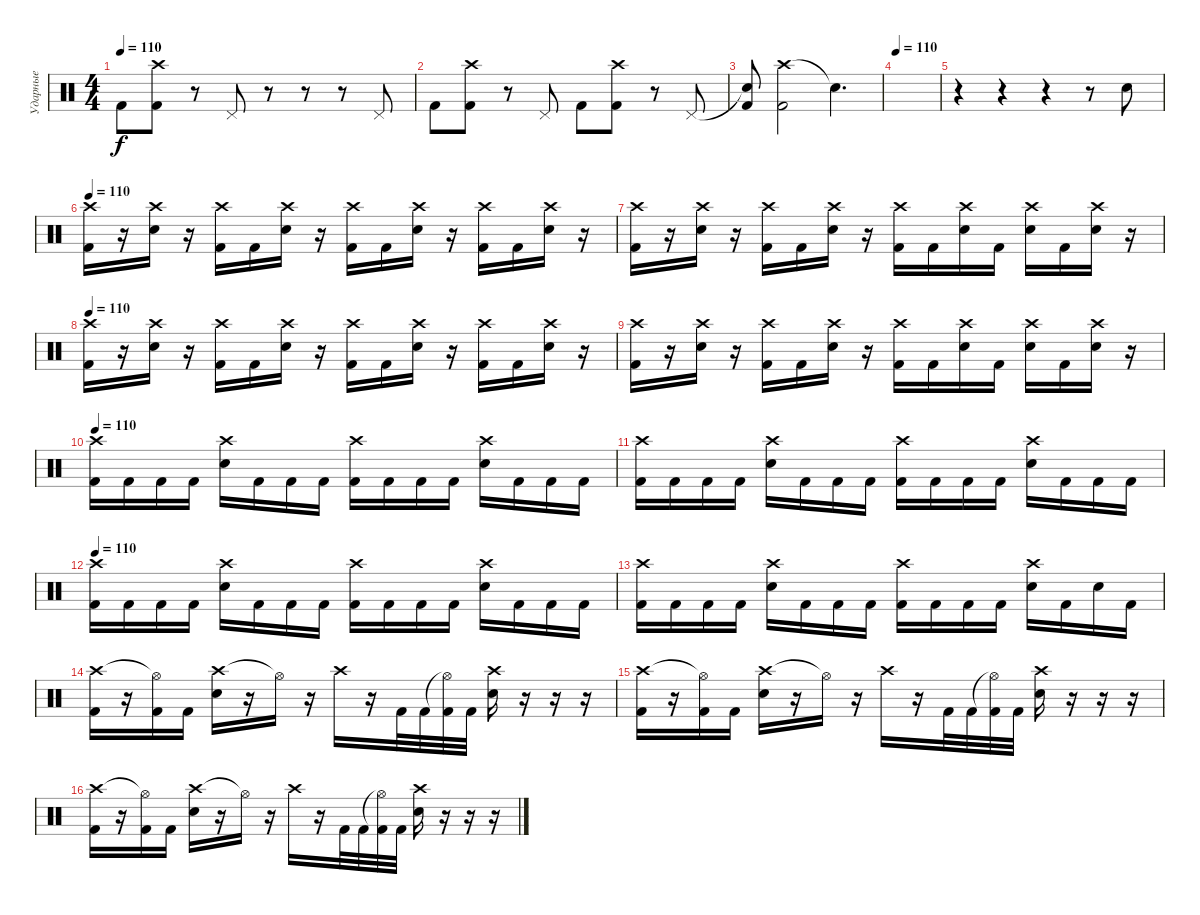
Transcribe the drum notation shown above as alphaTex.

\track ("Ударные" "Ударные") {instrument percussion}
\staff {score}
\articulation defaults
\ts (4 4)
\tempo 110
\clef neutral
\ks c "Kick (hit) 2".8{dy f}
("Crash high (hit)" "Kick (hit) 2").8 r.8 "Pedal Hi-Hat (hit)".8 r.8 r.8 r.8 "Pedal Hi-Hat (hit)".8 |
"Kick (hit) 2".8 ("Crash high (hit)" "Kick (hit) 2").8 r.8 "Pedal Hi-Hat (hit)".8 "Kick (hit) 2".8 ("Crash high (hit)" "Kick (hit) 2").8 r.8 "Pedal Hi-Hat (hit)".8 |
("Snare (hit)"{t} "Kick (hit) 2").8 ("Crash high (hit)" "Kick (hit) 2").2 "Snare (hit)"{t}.4{d} |
\tempo 110
|
r.4 r.4 r.4 r.8 "Snare (hit) 2".8 |
\tempo 110
("Crash high (hit)" "Kick (hit) 2").16 r.16 ("Crash high (hit)" "Snare (hit) 2").16 r.16 ("Crash high (hit)" "Kick (hit) 2").16 "Kick (hit) 2".16 ("Crash high (hit)" "Snare (hit) 2").16 r.16 ("Crash high (hit)" "Kick (hit) 2").16 "Kick (hit) 2".16 ("Crash high (hit)" "Snare (hit) 2").16 r.16 ("Crash high (hit)" "Kick (hit) 2").16 "Kick (hit) 2".16 ("Crash high (hit)" "Snare (hit) 2").16 r.16 |
("Crash high (hit)" "Kick (hit) 2").16 r.16 ("Crash high (hit)" "Snare (hit) 2").16 r.16 ("Crash high (hit)" "Kick (hit) 2").16 "Kick (hit) 2".16 ("Crash high (hit)" "Snare (hit) 2").16 r.16 ("Crash high (hit)" "Kick (hit) 2").16 "Kick (hit) 2".16 ("Crash high (hit)" "Snare (hit) 2").16 "Kick (hit) 2".16 ("Crash high (hit)" "Snare (hit) 2").16 "Kick (hit) 2".16 ("Crash high (hit)" "Snare (hit) 2").16 r.16 |
\tempo 110
("Crash high (hit)" "Kick (hit) 2").16 r.16 ("Crash high (hit)" "Snare (hit) 2").16 r.16 ("Crash high (hit)" "Kick (hit) 2").16 "Kick (hit) 2".16 ("Crash high (hit)" "Snare (hit) 2").16 r.16 ("Crash high (hit)" "Kick (hit) 2").16 "Kick (hit) 2".16 ("Crash high (hit)" "Snare (hit) 2").16 r.16 ("Crash high (hit)" "Kick (hit) 2").16 "Kick (hit) 2".16 ("Crash high (hit)" "Snare (hit) 2").16 r.16 |
("Crash high (hit)" "Kick (hit) 2").16 r.16 ("Crash high (hit)" "Snare (hit) 2").16 r.16 ("Crash high (hit)" "Kick (hit) 2").16 "Kick (hit) 2".16 ("Crash high (hit)" "Snare (hit) 2").16 r.16 ("Crash high (hit)" "Kick (hit) 2").16 "Kick (hit) 2".16 ("Crash high (hit)" "Snare (hit) 2").16 "Kick (hit) 2".16 ("Crash high (hit)" "Snare (hit) 2").16 "Kick (hit) 2".16 ("Crash high (hit)" "Snare (hit) 2").16 r.16 |
\tempo 110
("Crash high (hit)" "Kick (hit) 2").16 "Kick (hit) 2".16 "Kick (hit) 2".16 "Kick (hit) 2".16 ("Crash high (hit)" "Snare (hit) 2").16 "Kick (hit) 2".16 "Kick (hit) 2".16 "Kick (hit) 2".16 ("Crash high (hit)" "Kick (hit) 2").16 "Kick (hit) 2".16 "Kick (hit) 2".16 "Kick (hit) 2".16 ("Crash high (hit)" "Snare (hit) 2").16 "Kick (hit) 2".16 "Kick (hit) 2".16 "Kick (hit) 2".16 |
("Crash high (hit)" "Kick (hit) 2").16 "Kick (hit) 2".16 "Kick (hit) 2".16 "Kick (hit) 2".16 ("Crash high (hit)" "Snare (hit) 2").16 "Kick (hit) 2".16 "Kick (hit) 2".16 "Kick (hit) 2".16 ("Crash high (hit)" "Kick (hit) 2").16 "Kick (hit) 2".16 "Kick (hit) 2".16 "Kick (hit) 2".16 ("Crash high (hit)" "Snare (hit) 2").16 "Kick (hit) 2".16 "Kick (hit) 2".16 "Kick (hit) 2".16 |
\tempo 110
("Crash high (hit)" "Kick (hit) 2").16 "Kick (hit) 2".16 "Kick (hit) 2".16 "Kick (hit) 2".16 ("Crash high (hit)" "Snare (hit) 2").16 "Kick (hit) 2".16 "Kick (hit) 2".16 "Kick (hit) 2".16 ("Crash high (hit)" "Kick (hit) 2").16 "Kick (hit) 2".16 "Kick (hit) 2".16 "Kick (hit) 2".16 ("Crash high (hit)" "Snare (hit) 2").16 "Kick (hit) 2".16 "Kick (hit) 2".16 "Kick (hit) 2".16 |
("Crash high (hit)" "Kick (hit) 2").16 "Kick (hit) 2".16 "Kick (hit) 2".16 "Kick (hit) 2".16 ("Crash high (hit)" "Snare (hit) 2").16 "Kick (hit) 2".16 "Kick (hit) 2".16 "Kick (hit) 2".16 ("Crash high (hit)" "Kick (hit) 2").16 "Kick (hit) 2".16 "Kick (hit) 2".16 "Kick (hit) 2".16 ("Crash high (hit)" "Snare (hit) 2").16 "Kick (hit) 2".16 "Snare (hit) 2".16 "Kick (hit) 2".16 |
("Crash high (hit)" "Kick (hit) 2").16 r.16 ("Hi-Hat (open)"{t} "Kick (hit) 2").16 "Kick (hit) 2".16 ("Crash high (hit)" "Snare (hit) 2").16 r.16 "Hi-Hat (open)"{t}.16 r.16 "Crash high (hit)".16 r.16 "Kick (hit) 2".32 "Kick (hit) 2".32 ("Hi-Hat (open)"{t} "Kick (hit) 2").32 "Kick (hit) 2".32 ("Crash high (hit)" "Snare (hit) 2").16 r.16 r.16 r.16 |
("Crash high (hit)" "Kick (hit) 2").16 r.16 ("Hi-Hat (open)"{t} "Kick (hit) 2").16 "Kick (hit) 2".16 ("Crash high (hit)" "Snare (hit) 2").16 r.16 "Hi-Hat (open)"{t}.16 r.16 "Crash high (hit)".16 r.16 "Kick (hit) 2".32 "Kick (hit) 2".32 ("Hi-Hat (open)"{t} "Kick (hit) 2").32 "Kick (hit) 2".32 ("Crash high (hit)" "Snare (hit) 2").16 r.16 r.16 r.16 |
("Crash high (hit)" "Kick (hit) 2").16 r.16 ("Hi-Hat (open)"{t} "Kick (hit) 2").16 "Kick (hit) 2".16 ("Crash high (hit)" "Snare (hit) 2").16 r.16 "Hi-Hat (open)"{t}.16 r.16 "Crash high (hit)".16 r.16 "Kick (hit) 2".32 "Kick (hit) 2".32 ("Hi-Hat (open)"{t} "Kick (hit) 2").32 "Kick (hit) 2".32 ("Crash high (hit)" "Snare (hit) 2").16 r.16 r.16 r.16
